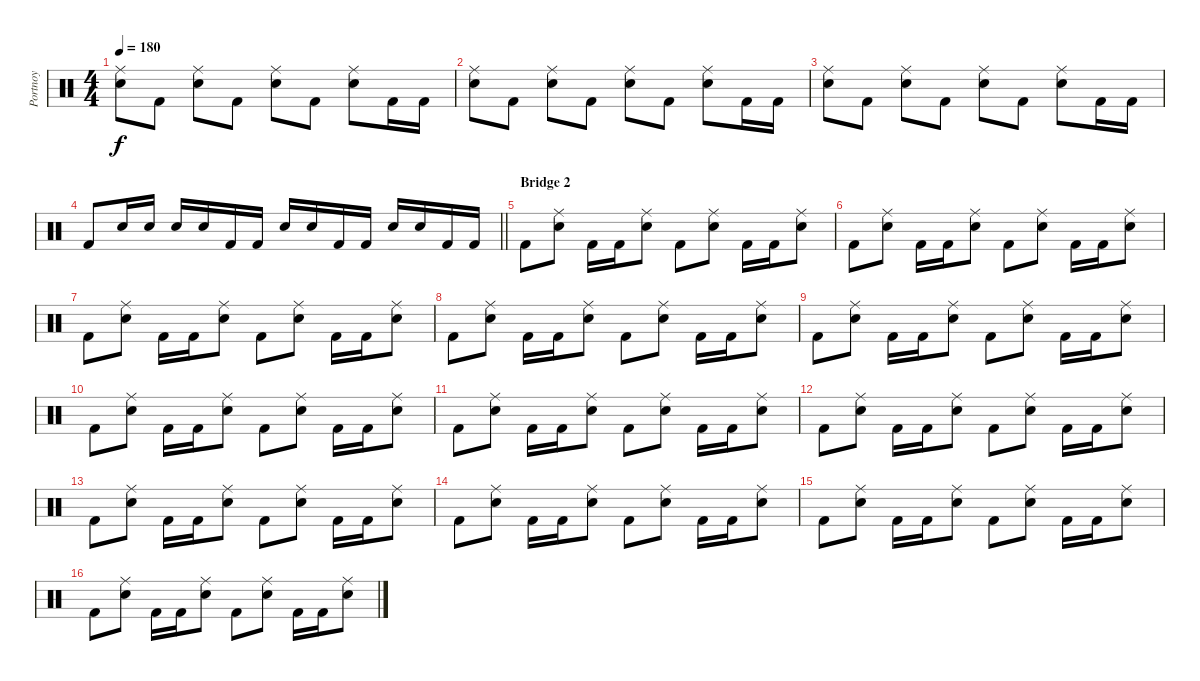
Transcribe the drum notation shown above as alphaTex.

\track ("Portnoy" "Portnoy") {instrument percussion}
\staff {score}
\articulation defaults
\ts (4 4)
\tempo 180
\clef neutral
\ks c
("Ride (middle)" "Electric Snare (hit)").8{dy f} "Kick (hit) 2".8 ("Ride (middle)" "Electric Snare (hit)").8 "Kick (hit) 2".8 ("Ride (middle)" "Electric Snare (hit)").8 "Kick (hit) 2".8 ("Ride (middle)" "Electric Snare (hit)").8 "Kick (hit) 2".16 "Kick (hit) 2".16 |
("Ride (middle)" "Electric Snare (hit)").8 "Kick (hit) 2".8 ("Ride (middle)" "Electric Snare (hit)").8 "Kick (hit) 2".8 ("Ride (middle)" "Electric Snare (hit)").8 "Kick (hit) 2".8 ("Ride (middle)" "Electric Snare (hit)").8 "Kick (hit) 2".16 "Kick (hit) 2".16 |
("Ride (middle)" "Electric Snare (hit)").8 "Kick (hit) 2".8 ("Ride (middle)" "Electric Snare (hit)").8 "Kick (hit) 2".8 ("Ride (middle)" "Electric Snare (hit)").8 "Kick (hit) 2".8 ("Ride (middle)" "Electric Snare (hit)").8 "Kick (hit) 2".16 "Kick (hit) 2".16 |
\barLineRight lightlight "Kick (hit) 2".8 "Electric Snare (hit)".16 "Electric Snare (hit)".16 "Electric Snare (hit)".16 "Electric Snare (hit)".16 "Kick (hit) 2".16 "Kick (hit) 2".16 "Electric Snare (hit)".16 "Electric Snare (hit)".16 "Kick (hit) 2".16 "Kick (hit) 2".16 "Electric Snare (hit)".16 "Electric Snare (hit)".16 "Kick (hit) 2".16 "Kick (hit) 2".16
|
\section ("" "Bridge 2")
"Kick (hit) 2".8 ("Ride (middle)" "Electric Snare (hit)").8 "Kick (hit) 2".16 "Kick (hit) 2".16 ("Ride (middle)" "Electric Snare (hit)").8 "Kick (hit) 2".8 ("Ride (middle)" "Electric Snare (hit)").8 "Kick (hit) 2".16 "Kick (hit) 2".16 ("Ride (middle)" "Electric Snare (hit)").8 |
"Kick (hit) 2".8 ("Ride (middle)" "Electric Snare (hit)").8 "Kick (hit) 2".16 "Kick (hit) 2".16 ("Ride (middle)" "Electric Snare (hit)").8 "Kick (hit) 2".8 ("Ride (middle)" "Electric Snare (hit)").8 "Kick (hit) 2".16 "Kick (hit) 2".16 ("Ride (middle)" "Electric Snare (hit)").8 |
"Kick (hit) 2".8 ("Ride (middle)" "Electric Snare (hit)").8 "Kick (hit) 2".16 "Kick (hit) 2".16 ("Ride (middle)" "Electric Snare (hit)").8 "Kick (hit) 2".8 ("Ride (middle)" "Electric Snare (hit)").8 "Kick (hit) 2".16 "Kick (hit) 2".16 ("Ride (middle)" "Electric Snare (hit)").8 |
"Kick (hit) 2".8 ("Ride (middle)" "Electric Snare (hit)").8 "Kick (hit) 2".16 "Kick (hit) 2".16 ("Ride (middle)" "Electric Snare (hit)").8 "Kick (hit) 2".8 ("Ride (middle)" "Electric Snare (hit)").8 "Kick (hit) 2".16 "Kick (hit) 2".16 ("Ride (middle)" "Electric Snare (hit)").8 |
"Kick (hit) 2".8 ("Ride (middle)" "Electric Snare (hit)").8 "Kick (hit) 2".16 "Kick (hit) 2".16 ("Ride (middle)" "Electric Snare (hit)").8 "Kick (hit) 2".8 ("Ride (middle)" "Electric Snare (hit)").8 "Kick (hit) 2".16 "Kick (hit) 2".16 ("Ride (middle)" "Electric Snare (hit)").8 |
"Kick (hit) 2".8 ("Ride (middle)" "Electric Snare (hit)").8 "Kick (hit) 2".16 "Kick (hit) 2".16 ("Ride (middle)" "Electric Snare (hit)").8 "Kick (hit) 2".8 ("Ride (middle)" "Electric Snare (hit)").8 "Kick (hit) 2".16 "Kick (hit) 2".16 ("Ride (middle)" "Electric Snare (hit)").8 |
"Kick (hit) 2".8 ("Ride (middle)" "Electric Snare (hit)").8 "Kick (hit) 2".16 "Kick (hit) 2".16 ("Ride (middle)" "Electric Snare (hit)").8 "Kick (hit) 2".8 ("Ride (middle)" "Electric Snare (hit)").8 "Kick (hit) 2".16 "Kick (hit) 2".16 ("Ride (middle)" "Electric Snare (hit)").8 |
"Kick (hit) 2".8 ("Ride (middle)" "Electric Snare (hit)").8 "Kick (hit) 2".16 "Kick (hit) 2".16 ("Ride (middle)" "Electric Snare (hit)").8 "Kick (hit) 2".8 ("Ride (middle)" "Electric Snare (hit)").8 "Kick (hit) 2".16 "Kick (hit) 2".16 ("Ride (middle)" "Electric Snare (hit)").8 |
"Kick (hit) 2".8 ("Ride (middle)" "Electric Snare (hit)").8 "Kick (hit) 2".16 "Kick (hit) 2".16 ("Ride (middle)" "Electric Snare (hit)").8 "Kick (hit) 2".8 ("Ride (middle)" "Electric Snare (hit)").8 "Kick (hit) 2".16 "Kick (hit) 2".16 ("Ride (middle)" "Electric Snare (hit)").8 |
"Kick (hit) 2".8 ("Ride (middle)" "Electric Snare (hit)").8 "Kick (hit) 2".16 "Kick (hit) 2".16 ("Ride (middle)" "Electric Snare (hit)").8 "Kick (hit) 2".8 ("Ride (middle)" "Electric Snare (hit)").8 "Kick (hit) 2".16 "Kick (hit) 2".16 ("Ride (middle)" "Electric Snare (hit)").8 |
"Kick (hit) 2".8 ("Ride (middle)" "Electric Snare (hit)").8 "Kick (hit) 2".16 "Kick (hit) 2".16 ("Ride (middle)" "Electric Snare (hit)").8 "Kick (hit) 2".8 ("Ride (middle)" "Electric Snare (hit)").8 "Kick (hit) 2".16 "Kick (hit) 2".16 ("Ride (middle)" "Electric Snare (hit)").8 |
"Kick (hit) 2".8 ("Ride (middle)" "Electric Snare (hit)").8 "Kick (hit) 2".16 "Kick (hit) 2".16 ("Ride (middle)" "Electric Snare (hit)").8 "Kick (hit) 2".8 ("Ride (middle)" "Electric Snare (hit)").8 "Kick (hit) 2".16 "Kick (hit) 2".16 ("Ride (middle)" "Electric Snare (hit)").8
